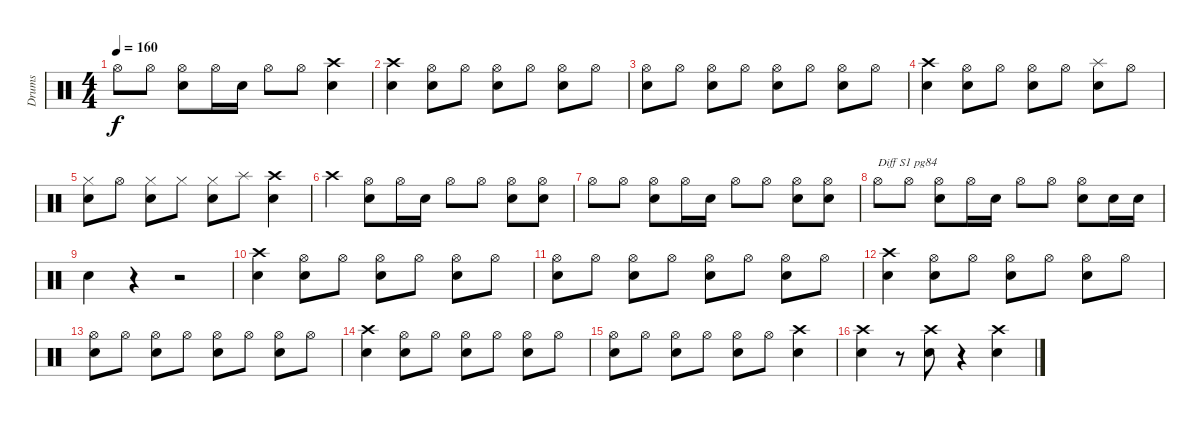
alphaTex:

\track ("Drums" "Drums") {instrument percussion}
\staff {score}
\articulation defaults
\ts (4 4)
\tempo 160
\clef neutral
\ks c "Hi-Hat (open)".8{dy f} "Hi-Hat (open)".8
("Hi-Hat (open)" "Snare (hit) 2").8 "Hi-Hat (open)".16 "Snare (hit) 2".16 "Hi-Hat (open)".8 "Hi-Hat (open)".8 ("Crash high (hit)" "Snare (hit) 2").4 |
("Crash high (hit)" "Snare (hit) 2").4 ("Hi-Hat (open)" "Snare (hit) 2").8 "Hi-Hat (open)".8 ("Hi-Hat (open)" "Snare (hit) 2").8 "Hi-Hat (open)".8 ("Hi-Hat (open)" "Snare (hit) 2").8 "Hi-Hat (open)".8 |
("Hi-Hat (open)" "Snare (hit) 2").8 "Hi-Hat (open)".8 ("Hi-Hat (open)" "Snare (hit) 2").8 "Hi-Hat (open)".8 ("Hi-Hat (open)" "Snare (hit) 2").8 "Hi-Hat (open)".8 ("Hi-Hat (open)" "Snare (hit) 2").8 "Hi-Hat (open)".8 |
("Crash high (hit)" "Snare (hit) 2").4 ("Hi-Hat (open)" "Snare (hit) 2").8 "Hi-Hat (open)".8 ("Hi-Hat (open)" "Snare (hit) 2").8 "Hi-Hat (open)".8 ("Splash (hit)" "Snare (hit) 2").8 "Hi-Hat (open)".8 |
("Hi-Hat (closed)" "Snare (hit) 2").8 "Hi-Hat (open)".8 ("Hi-Hat (closed)" "Snare (hit) 2").8 "Hi-Hat (closed)".8 ("Hi-Hat (closed)" "Snare (hit) 2").8 "Splash (hit)".8 ("Crash high (hit)" "Snare (hit) 2").4 |
"Crash high (hit)".4 ("Hi-Hat (open)" "Snare (hit) 2").8 "Hi-Hat (open)".16 "Snare (hit) 2".16 "Hi-Hat (open)".8 "Hi-Hat (open)".8 ("Hi-Hat (open)" "Snare (hit) 2").8 ("Hi-Hat (open)" "Snare (hit) 2").8 |
"Hi-Hat (open)".8 "Hi-Hat (open)".8 ("Hi-Hat (open)" "Snare (hit) 2").8 "Hi-Hat (open)".16 "Snare (hit) 2".16 "Hi-Hat (open)".8 "Hi-Hat (open)".8 ("Hi-Hat (open)" "Snare (hit) 2").8 ("Hi-Hat (open)" "Snare (hit) 2").8 |
"Hi-Hat (open)".8{txt "Diff S1 pg84"} "Hi-Hat (open)".8 ("Hi-Hat (open)" "Snare (hit) 2").8 "Hi-Hat (open)".16 "Snare (hit) 2".16 "Hi-Hat (open)".8 "Hi-Hat (open)".8 ("Hi-Hat (open)" "Snare (hit) 2").8 "Snare (hit) 2".16 "Snare (hit) 2".16 |
"Snare (hit) 2".4 r.4 r.2 |
("Crash high (hit)" "Snare (hit) 2").4 ("Hi-Hat (open)" "Snare (hit) 2").8 "Hi-Hat (open)".8 ("Hi-Hat (open)" "Snare (hit) 2").8 "Hi-Hat (open)".8 ("Hi-Hat (open)" "Snare (hit) 2").8 "Hi-Hat (open)".8 |
("Hi-Hat (open)" "Snare (hit) 2").8 "Hi-Hat (open)".8 ("Hi-Hat (open)" "Snare (hit) 2").8 "Hi-Hat (open)".8 ("Hi-Hat (open)" "Snare (hit) 2").8 "Hi-Hat (open)".8 ("Hi-Hat (open)" "Snare (hit) 2").8 "Hi-Hat (open)".8 |
("Crash high (hit)" "Snare (hit) 2").4 ("Hi-Hat (open)" "Snare (hit) 2").8 "Hi-Hat (open)".8 ("Hi-Hat (open)" "Snare (hit) 2").8 "Hi-Hat (open)".8 ("Hi-Hat (open)" "Snare (hit) 2").8 "Hi-Hat (open)".8 |
("Hi-Hat (open)" "Snare (hit) 2").8 "Hi-Hat (open)".8 ("Hi-Hat (open)" "Snare (hit) 2").8 "Hi-Hat (open)".8 ("Hi-Hat (open)" "Snare (hit) 2").8 "Hi-Hat (open)".8 ("Hi-Hat (open)" "Snare (hit) 2").8 "Hi-Hat (open)".8 |
("Crash high (hit)" "Snare (hit) 2").4 ("Hi-Hat (open)" "Snare (hit) 2").8 "Hi-Hat (open)".8 ("Hi-Hat (open)" "Snare (hit) 2").8 "Hi-Hat (open)".8 ("Hi-Hat (open)" "Snare (hit) 2").8 "Hi-Hat (open)".8 |
("Hi-Hat (open)" "Snare (hit) 2").8 "Hi-Hat (open)".8 ("Hi-Hat (open)" "Snare (hit) 2").8 "Hi-Hat (open)".8 ("Hi-Hat (open)" "Snare (hit) 2").8 "Hi-Hat (open)".8 ("Crash high (hit)" "Snare (hit) 2").4 |
("Crash high (hit)" "Snare (hit) 2").4 r.8 ("Crash high (hit)" "Snare (hit) 2").8 r.4 ("Crash high (hit)" "Snare (hit) 2").4
